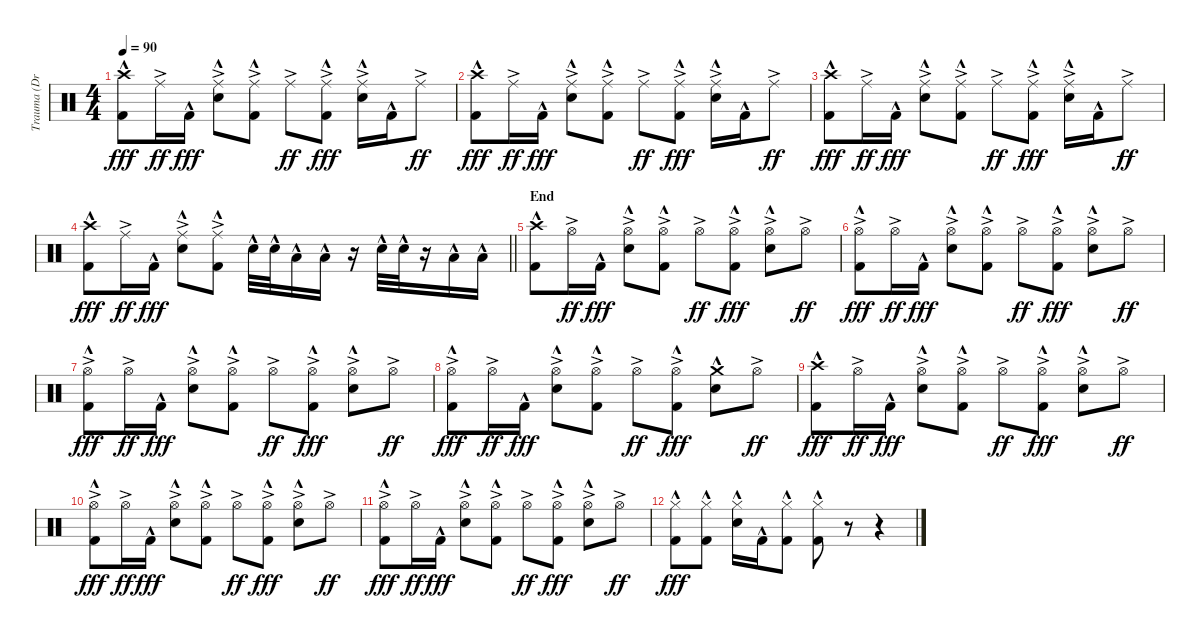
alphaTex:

\track ("Trauma (Drums)" "Trauma (Dr") {instrument percussion}
\staff {score}
\articulation defaults
\ts (4 4)
\tempo 90
\clef neutral
\ks c
("Crash high (hit)"{hac} "Kick (hit) 2"{hac}).8{dy fff} "Ride (middle)"{ac}.16{dy ff} "Kick (hit) 2"{hac}.16{dy fff} ("Ride (middle)"{ac} "Snare (hit) 2"{hac}).8 ("Ride (middle)"{ac} "Kick (hit) 2"{hac}).8 "Ride (middle)"{ac}.8{dy ff} ("Ride (middle)"{ac} "Kick (hit) 2"{hac}).8{dy fff} ("Ride (middle)"{ac} "Snare (hit) 2"{hac}).16 "Kick (hit) 2"{hac}.16 "Ride (middle)"{ac}.8{dy ff} |
("Crash high (hit)"{hac} "Kick (hit) 2"{hac}).8{dy fff} "Ride (middle)"{ac}.16{dy ff} "Kick (hit) 2"{hac}.16{dy fff} ("Ride (middle)"{ac} "Snare (hit) 2"{hac}).8 ("Ride (middle)"{ac} "Kick (hit) 2"{hac}).8 "Ride (middle)"{ac}.8{dy ff} ("Ride (middle)"{ac} "Kick (hit) 2"{hac}).8{dy fff} ("Ride (middle)"{ac} "Snare (hit) 2"{hac}).16 "Kick (hit) 2"{hac}.16 "Ride (middle)"{ac}.8{dy ff} |
("Crash high (hit)"{hac} "Kick (hit) 2"{hac}).8{dy fff} "Ride (middle)"{ac}.16{dy ff} "Kick (hit) 2"{hac}.16{dy fff} ("Ride (middle)"{ac} "Snare (hit) 2"{hac}).8 ("Ride (middle)"{ac} "Kick (hit) 2"{hac}).8 "Ride (middle)"{ac}.8{dy ff} ("Ride (middle)"{ac} "Kick (hit) 2"{hac}).8{dy fff} ("Ride (middle)"{ac} "Snare (hit) 2"{hac}).16 "Kick (hit) 2"{hac}.16 "Ride (middle)"{ac}.8{dy ff} |
\barLineRight lightlight
("Crash high (hit)"{hac} "Kick (hit) 2"{hac}).8{dy fff} "Ride (middle)"{ac}.16{dy ff} "Kick (hit) 2"{hac}.16{dy fff} ("Ride (middle)"{ac} "Snare (hit) 2"{hac}).8 ("Ride (middle)"{ac} "Kick (hit) 2"{hac}).8 "Snare (hit) 2"{hac}.32 "Snare (hit) 2"{hac}.32 "Low Tom (hit)"{hac}.16 "Low Tom (hit)"{hac}.16 r.16 "Snare (hit) 2"{hac}.32 "Snare (hit) 2"{hac}.32 r.16 "Low Floor Tom (hit)"{hac}.16 "Low Floor Tom (hit)"{hac}.16 |
\section ("" "End")
("Crash high (hit)"{hac} "Kick (hit) 2"{hac}).8 "Hi-Hat (open)"{ac}.16{dy ff} "Kick (hit) 2"{hac}.16{dy fff} ("Hi-Hat (open)"{ac} "Snare (hit) 2"{hac}).8 ("Hi-Hat (open)"{ac} "Kick (hit) 2"{hac}).8 "Hi-Hat (open)"{ac}.8{dy ff} ("Hi-Hat (open)"{ac} "Kick (hit) 2"{hac}).8{dy fff} ("Hi-Hat (open)"{ac} "Snare (hit) 2"{hac}).8 "Hi-Hat (open)"{ac}.8{dy ff} |
("Hi-Hat (open)"{ac} "Kick (hit) 2"{hac}).8{dy fff} "Hi-Hat (open)"{ac}.16{dy ff} "Kick (hit) 2"{hac}.16{dy fff} ("Hi-Hat (open)"{ac} "Snare (hit) 2"{hac}).8 ("Hi-Hat (open)"{ac} "Kick (hit) 2"{hac}).8 "Hi-Hat (open)"{ac}.8{dy ff} ("Hi-Hat (open)"{ac} "Kick (hit) 2"{hac}).8{dy fff} ("Hi-Hat (open)"{ac} "Snare (hit) 2"{hac}).8 "Hi-Hat (open)"{ac}.8{dy ff} |
("Hi-Hat (open)"{ac} "Kick (hit) 2"{hac}).8{dy fff} "Hi-Hat (open)"{ac}.16{dy ff} "Kick (hit) 2"{hac}.16{dy fff} ("Hi-Hat (open)"{ac} "Snare (hit) 2"{hac}).8 ("Hi-Hat (open)"{ac} "Kick (hit) 2"{hac}).8 "Hi-Hat (open)"{ac}.8{dy ff} ("Hi-Hat (open)"{ac} "Kick (hit) 2"{hac}).8{dy fff} ("Hi-Hat (open)"{ac} "Snare (hit) 2"{hac}).8 "Hi-Hat (open)"{ac}.8{dy ff} |
("Hi-Hat (open)"{ac} "Kick (hit) 2"{hac}).8{dy fff} "Hi-Hat (open)"{ac}.16{dy ff} "Kick (hit) 2"{hac}.16{dy fff} ("Hi-Hat (open)"{ac} "Snare (hit) 2"{hac}).8 ("Hi-Hat (open)"{ac} "Kick (hit) 2"{hac}).8 "Hi-Hat (open)"{ac}.8{dy ff} ("Hi-Hat (open)"{ac} "Kick (hit) 2"{hac}).8{dy fff} ("Crash medium (hit)"{hac} "Snare (hit) 2"{hac}).8 "Hi-Hat (open)"{ac}.8{dy ff} |
("Crash high (hit)"{hac} "Kick (hit) 2"{hac}).8{dy fff} "Hi-Hat (open)"{ac}.16{dy ff} "Kick (hit) 2"{hac}.16{dy fff} ("Hi-Hat (open)"{ac} "Snare (hit) 2"{hac}).8 ("Hi-Hat (open)"{ac} "Kick (hit) 2"{hac}).8 "Hi-Hat (open)"{ac}.8{dy ff} ("Hi-Hat (open)"{ac} "Kick (hit) 2"{hac}).8{dy fff} ("Hi-Hat (open)"{ac} "Snare (hit) 2"{hac}).8 "Hi-Hat (open)"{ac}.8{dy ff} |
("Hi-Hat (open)"{ac} "Kick (hit) 2"{hac}).8{dy fff} "Hi-Hat (open)"{ac}.16{dy ff} "Kick (hit) 2"{hac}.16{dy fff} ("Hi-Hat (open)"{ac} "Snare (hit) 2"{hac}).8 ("Hi-Hat (open)"{ac} "Kick (hit) 2"{hac}).8 "Hi-Hat (open)"{ac}.8{dy ff} ("Hi-Hat (open)"{ac} "Kick (hit) 2"{hac}).8{dy fff} ("Hi-Hat (open)"{ac} "Snare (hit) 2"{hac}).8 "Hi-Hat (open)"{ac}.8{dy ff} |
("Hi-Hat (open)"{ac} "Kick (hit) 2"{hac}).8{dy fff} "Hi-Hat (open)"{ac}.16{dy ff} "Kick (hit) 2"{hac}.16{dy fff} ("Hi-Hat (open)"{ac} "Snare (hit) 2"{hac}).8 ("Hi-Hat (open)"{ac} "Kick (hit) 2"{hac}).8 "Hi-Hat (open)"{ac}.8{dy ff} ("Hi-Hat (open)"{ac} "Kick (hit) 2"{hac}).8{dy fff} ("Hi-Hat (open)"{ac} "Snare (hit) 2"{hac}).8 "Hi-Hat (open)"{ac}.8{dy ff} |
("Hi-Hat (closed)" "Kick (hit) 2"{hac}).8{dy fff} ("Hi-Hat (closed)" "Kick (hit) 2"{hac}).8 ("Hi-Hat (closed)" "Snare (hit) 2"{hac}).16 "Kick (hit) 2"{hac}.16 ("Hi-Hat (closed)" "Kick (hit) 2"{hac}).8 ("Hi-Hat (closed)" "Kick (hit) 2"{hac}).8 r.8 r.4
